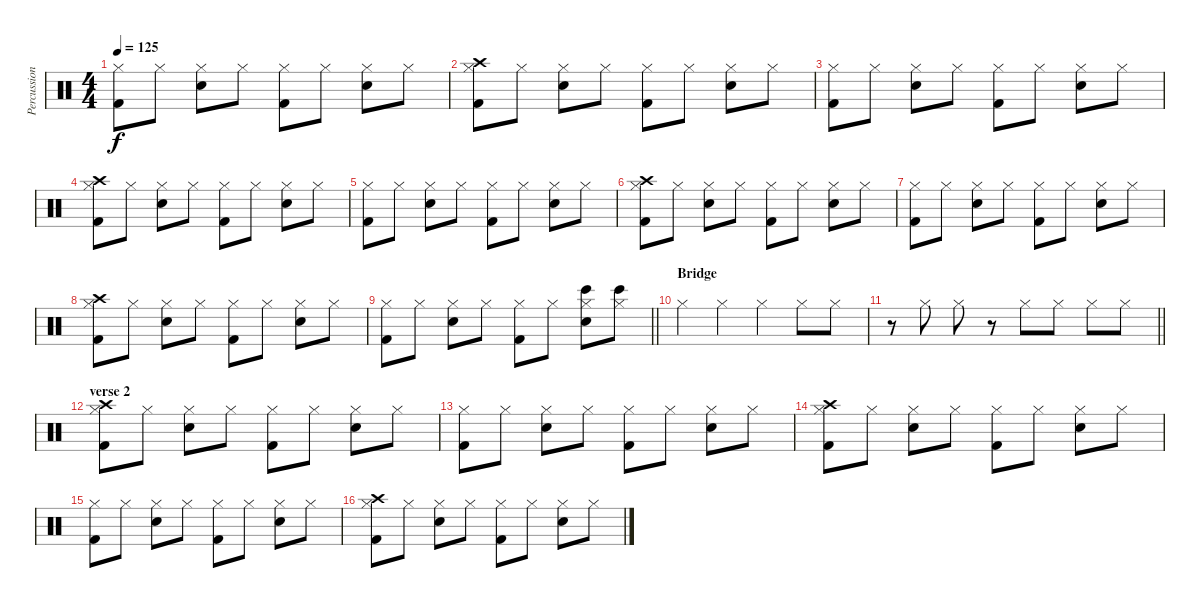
\track ("Percussion" "Percussion") {instrument percussion}
\staff {score}
\articulation defaults
\ts (4 4)
\tempo 125
\clef neutral
\ks c
("Hi-Hat (closed)" "Kick (hit) 2").8{dy f} "Hi-Hat (closed)".8 ("Hi-Hat (closed)" "Snare (hit) 2").8 "Hi-Hat (closed)".8 ("Hi-Hat (closed)" "Kick (hit) 2").8 "Hi-Hat (closed)".8 ("Hi-Hat (closed)" "Snare (hit) 2").8 "Hi-Hat (closed)".8 |
("Crash high (hit)" "Hi-Hat (closed)" "Kick (hit) 2").8 "Hi-Hat (closed)".8 ("Hi-Hat (closed)" "Snare (hit) 2").8 "Hi-Hat (closed)".8 ("Hi-Hat (closed)" "Kick (hit) 2").8 "Hi-Hat (closed)".8 ("Hi-Hat (closed)" "Snare (hit) 2").8 "Hi-Hat (closed)".8 |
("Hi-Hat (closed)" "Kick (hit) 2").8 "Hi-Hat (closed)".8 ("Hi-Hat (closed)" "Snare (hit) 2").8 "Hi-Hat (closed)".8 ("Hi-Hat (closed)" "Kick (hit) 2").8 "Hi-Hat (closed)".8 ("Hi-Hat (closed)" "Snare (hit) 2").8 "Hi-Hat (closed)".8 |
("Crash high (hit)" "Hi-Hat (closed)" "Kick (hit) 2").8 "Hi-Hat (closed)".8 ("Hi-Hat (closed)" "Snare (hit) 2").8 "Hi-Hat (closed)".8 ("Hi-Hat (closed)" "Kick (hit) 2").8 "Hi-Hat (closed)".8 ("Hi-Hat (closed)" "Snare (hit) 2").8 "Hi-Hat (closed)".8 |
("Hi-Hat (closed)" "Kick (hit) 2").8 "Hi-Hat (closed)".8 ("Hi-Hat (closed)" "Snare (hit) 2").8 "Hi-Hat (closed)".8 ("Hi-Hat (closed)" "Kick (hit) 2").8 "Hi-Hat (closed)".8 ("Hi-Hat (closed)" "Snare (hit) 2").8 "Hi-Hat (closed)".8 |
("Crash high (hit)" "Hi-Hat (closed)" "Kick (hit) 2").8 "Hi-Hat (closed)".8 ("Hi-Hat (closed)" "Snare (hit) 2").8 "Hi-Hat (closed)".8 ("Hi-Hat (closed)" "Kick (hit) 2").8 "Hi-Hat (closed)".8 ("Hi-Hat (closed)" "Snare (hit) 2").8 "Hi-Hat (closed)".8 |
("Hi-Hat (closed)" "Kick (hit) 2").8 "Hi-Hat (closed)".8 ("Hi-Hat (closed)" "Snare (hit) 2").8 "Hi-Hat (closed)".8 ("Hi-Hat (closed)" "Kick (hit) 2").8 "Hi-Hat (closed)".8 ("Hi-Hat (closed)" "Snare (hit) 2").8 "Hi-Hat (closed)".8 |
("Crash high (hit)" "Hi-Hat (closed)" "Kick (hit) 2").8 "Hi-Hat (closed)".8 ("Hi-Hat (closed)" "Snare (hit) 2").8 "Hi-Hat (closed)".8 ("Hi-Hat (closed)" "Kick (hit) 2").8 "Hi-Hat (closed)".8 ("Hi-Hat (closed)" "Snare (hit) 2").8 "Hi-Hat (closed)".8 |
\barLineRight lightlight
("Hi-Hat (closed)" "Kick (hit) 2").8 "Hi-Hat (closed)".8 ("Hi-Hat (closed)" "Snare (hit) 2").8 "Hi-Hat (closed)".8 ("Hi-Hat (closed)" "Kick (hit) 2").8 "Hi-Hat (closed)".8 ("Bongo High (hit)" "Hi-Hat (closed)" "Snare (hit) 2").8 ("Bongo High (hit)" "Hi-Hat (closed)").8 |
\section ("" "Bridge")
"Hi-Hat (closed)".4 "Hi-Hat (closed)".4 "Hi-Hat (closed)".4 "Hi-Hat (closed)".8 "Hi-Hat (closed)".8 |
\barLineRight lightlight
r.8 "Hi-Hat (closed)".8 "Hi-Hat (closed)".8 r.8 "Hi-Hat (closed)".8 "Hi-Hat (closed)".8 "Hi-Hat (closed)".8 "Hi-Hat (closed)".8 |
\section ("" "verse 2")
("Crash high (hit)" "Hi-Hat (closed)" "Kick (hit) 2").8 "Hi-Hat (closed)".8 ("Hi-Hat (closed)" "Snare (hit) 2").8 "Hi-Hat (closed)".8 ("Hi-Hat (closed)" "Kick (hit) 2").8 "Hi-Hat (closed)".8 ("Hi-Hat (closed)" "Snare (hit) 2").8 "Hi-Hat (closed)".8 |
("Hi-Hat (closed)" "Kick (hit) 2").8 "Hi-Hat (closed)".8 ("Hi-Hat (closed)" "Snare (hit) 2").8 "Hi-Hat (closed)".8 ("Hi-Hat (closed)" "Kick (hit) 2").8 "Hi-Hat (closed)".8 ("Hi-Hat (closed)" "Snare (hit) 2").8 "Hi-Hat (closed)".8 |
("Crash high (hit)" "Hi-Hat (closed)" "Kick (hit) 2").8 "Hi-Hat (closed)".8 ("Hi-Hat (closed)" "Snare (hit) 2").8 "Hi-Hat (closed)".8 ("Hi-Hat (closed)" "Kick (hit) 2").8 "Hi-Hat (closed)".8 ("Hi-Hat (closed)" "Snare (hit) 2").8 "Hi-Hat (closed)".8 |
("Hi-Hat (closed)" "Kick (hit) 2").8 "Hi-Hat (closed)".8 ("Hi-Hat (closed)" "Snare (hit) 2").8 "Hi-Hat (closed)".8 ("Hi-Hat (closed)" "Kick (hit) 2").8 "Hi-Hat (closed)".8 ("Hi-Hat (closed)" "Snare (hit) 2").8 "Hi-Hat (closed)".8 |
("Crash high (hit)" "Hi-Hat (closed)" "Kick (hit) 2").8 "Hi-Hat (closed)".8 ("Hi-Hat (closed)" "Snare (hit) 2").8 "Hi-Hat (closed)".8 ("Hi-Hat (closed)" "Kick (hit) 2").8 "Hi-Hat (closed)".8 ("Hi-Hat (closed)" "Snare (hit) 2").8 "Hi-Hat (closed)".8
